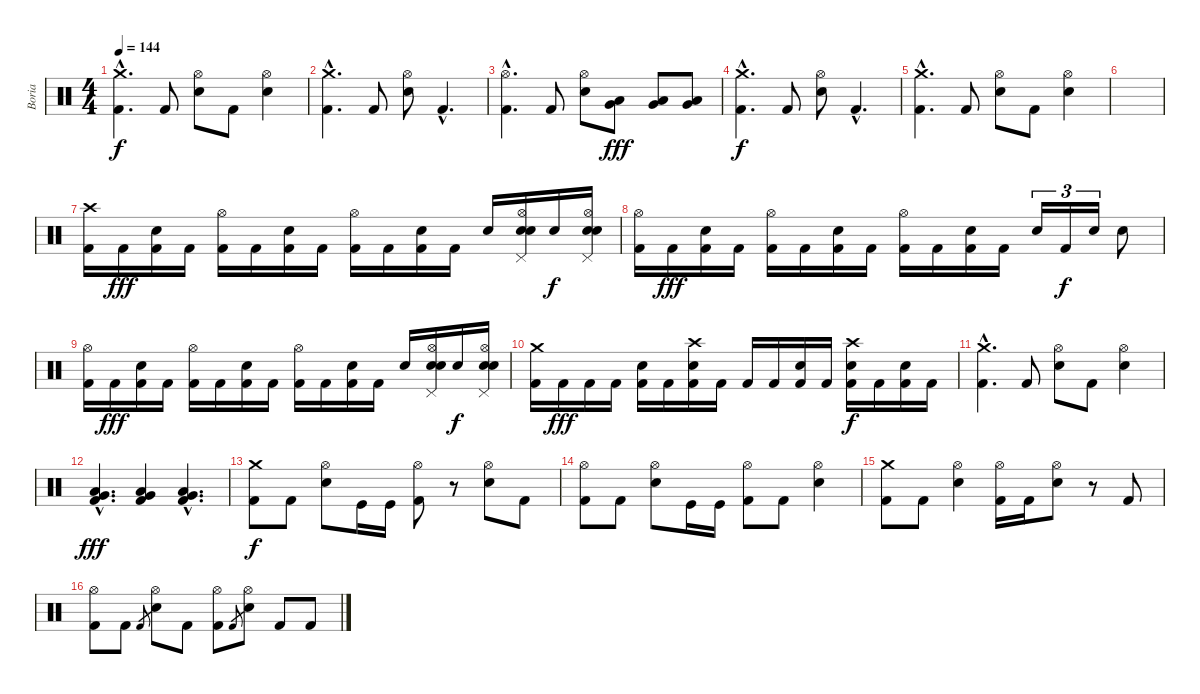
\track ("Boria" "Boria") {instrument percussion}
\staff {score}
\articulation defaults
\ts (4 4)
\tempo 144
\clef neutral
\ks c
("Kick (hit) 2"{hac} "Crash medium (hit)"{hac}).4{d dy f} "Kick (hit) 2".8 ("Electric Snare (hit)" "Hi-Hat (open)").8 "Kick (hit) 2".8 ("Hi-Hat (open)" "Electric Snare (hit)").4 |
("Kick (hit) 2"{hac} "Crash medium (hit)"{hac}).4{d} "Kick (hit) 2".8 ("Electric Snare (hit)" "Hi-Hat (open)").8 "Kick (hit) 2"{hac}.4{d} |
("Kick (hit) 2"{hac} "Hi-Hat (open)"{hac}).4{d} "Kick (hit) 2".8 ("Electric Snare (hit)" "Hi-Hat (open)").8 ("Low Tom (hit)" "Very Low Tom (hit)").8{dy fff} ("Low Tom (hit)" "Very Low Tom (hit)").8 ("Low Tom (hit)" "Very Low Tom (hit)").8 |
("Kick (hit) 2"{hac} "Crash medium (hit)"{hac}).4{d dy f} "Kick (hit) 2".8 ("Electric Snare (hit)" "Hi-Hat (open)").8 "Kick (hit) 2"{hac}.4{d} |
("Kick (hit) 2"{hac} "Crash medium (hit)"{hac}).4{d} "Kick (hit) 2".8 ("Electric Snare (hit)" "Hi-Hat (open)").8 "Kick (hit) 2".8 ("Hi-Hat (open)" "Electric Snare (hit)").4 |
|
("Crash high (hit)" "Kick (hit) 2").16 "Kick (hit) 2".16{dy fff} ("Snare (hit) 2" "Kick (hit) 2").16 "Kick (hit) 2".16 ("Hi-Hat (open)" "Kick (hit) 2").16 "Kick (hit) 2".16 ("Snare (hit) 2" "Kick (hit) 2").16 "Kick (hit) 2".16 ("Hi-Hat (open)" "Kick (hit) 2").16 "Kick (hit) 2".16 ("Snare (hit) 2" "Kick (hit) 2").16 "Kick (hit) 2".16 "Snare (hit) 2".16 ("Pedal Hi-Hat (hit)" "Hi-Hat (open)" "Electric Snare (hit)" "Snare (hit) 2").16 "Snare (hit) 2".16{dy f} ("Pedal Hi-Hat (hit)" "Hi-Hat (open)" "Electric Snare (hit)" "Snare (hit) 2").16 |
("Hi-Hat (open)" "Kick (hit) 2").16 "Kick (hit) 2".16{dy fff} ("Snare (hit) 2" "Kick (hit) 2").16 "Kick (hit) 2".16 ("Hi-Hat (open)" "Kick (hit) 2").16 "Kick (hit) 2".16 ("Snare (hit) 2" "Kick (hit) 2").16 "Kick (hit) 2".16 ("Hi-Hat (open)" "Kick (hit) 2").16 "Kick (hit) 2".16 ("Snare (hit) 2" "Kick (hit) 2").16 "Kick (hit) 2".16 "Snare (hit) 2".16{tu (3 2)} "Kick (hit) 2".16{tu (3 2) dy f} "Snare (hit) 2".16{tu (3 2)} "Electric Snare (hit)".8 |
("Hi-Hat (open)" "Kick (hit) 2").16 "Kick (hit) 2".16{dy fff} ("Snare (hit) 2" "Kick (hit) 2").16 "Kick (hit) 2".16 ("Hi-Hat (open)" "Kick (hit) 2").16 "Kick (hit) 2".16 ("Snare (hit) 2" "Kick (hit) 2").16 "Kick (hit) 2".16 ("Hi-Hat (open)" "Kick (hit) 2").16 "Kick (hit) 2".16 ("Snare (hit) 2" "Kick (hit) 2").16 "Kick (hit) 2".16 "Snare (hit) 2".16 ("Pedal Hi-Hat (hit)" "Hi-Hat (open)" "Electric Snare (hit)" "Snare (hit) 2").16 "Snare (hit) 2".16{dy f} ("Pedal Hi-Hat (hit)" "Hi-Hat (open)" "Electric Snare (hit)" "Snare (hit) 2").16 |
("Crash medium (hit)" "Kick (hit) 2").16 "Kick (hit) 2".16{dy fff} "Kick (hit) 2".16 "Kick (hit) 2".16 ("Snare (hit) 2" "Kick (hit) 2").16 "Kick (hit) 2".16 ("Crash high (hit)" "Electric Snare (hit)" "Kick (hit) 2").16 "Kick (hit) 2".16 "Kick (hit) 2".16 "Kick (hit) 2".16 ("Snare (hit) 2" "Kick (hit) 2").16 "Kick (hit) 2".16 ("Crash high (hit)" "Electric Snare (hit)" "Kick (hit) 2").16{dy f} "Kick (hit) 2".16 ("Snare (hit) 2" "Kick (hit) 2").16 "Kick (hit) 2".16 |
("Kick (hit) 2"{hac} "Crash medium (hit)"{hac}).4{d} "Kick (hit) 2".8 ("Electric Snare (hit)" "Hi-Hat (open)").8 "Kick (hit) 2".8 ("Hi-Hat (open)" "Electric Snare (hit)").4 |
("Very Low Tom (hit)"{hac} "Kick (hit) 2"{hac} "Low Floor Tom (hit)"{hac}).4{d dy fff} ("Kick (hit) 2" "Low Floor Tom (hit)" "Very Low Tom (hit)").4 ("Kick (hit) 2"{hac} "Low Floor Tom (hit)"{hac} "Very Low Tom (hit)"{hac}).4{d} |
("Kick (hit) 2" "Crash medium (hit)").8{dy f} "Kick (hit) 2".8 ("Hi-Hat (open)" "Electric Snare (hit)").8 "Kick (hit)".16 "Kick (hit)".16 ("Hi-Hat (open)" "Kick (hit) 2").8 r.8 ("Hi-Hat (open)" "Electric Snare (hit)").8 "Kick (hit) 2".8 |
("Kick (hit) 2" "Hi-Hat (open)").8 "Kick (hit) 2".8 ("Hi-Hat (open)" "Electric Snare (hit)").8 "Kick (hit)".16 "Kick (hit)".16 ("Hi-Hat (open)" "Kick (hit) 2").8 "Kick (hit) 2".8 ("Hi-Hat (open)" "Electric Snare (hit)").4 |
("Kick (hit) 2" "Crash medium (hit)").8 "Kick (hit) 2".8 ("Hi-Hat (open)" "Electric Snare (hit)").4 ("Hi-Hat (open)" "Kick (hit) 2").16 "Kick (hit) 2".16 ("Hi-Hat (open)" "Electric Snare (hit)").8 r.8 "Kick (hit) 2".8 |
("Kick (hit) 2" "Hi-Hat (open)").8 "Kick (hit) 2".8 "Kick (hit) 2".8{gr} ("Hi-Hat (open)" "Snare (hit) 2").8 "Kick (hit) 2".8 ("Hi-Hat (open)" "Kick (hit) 2").8 "Kick (hit) 2".8{gr} ("Hi-Hat (open)" "Snare (hit) 2").8 "Kick (hit) 2".8 "Kick (hit) 2".8
